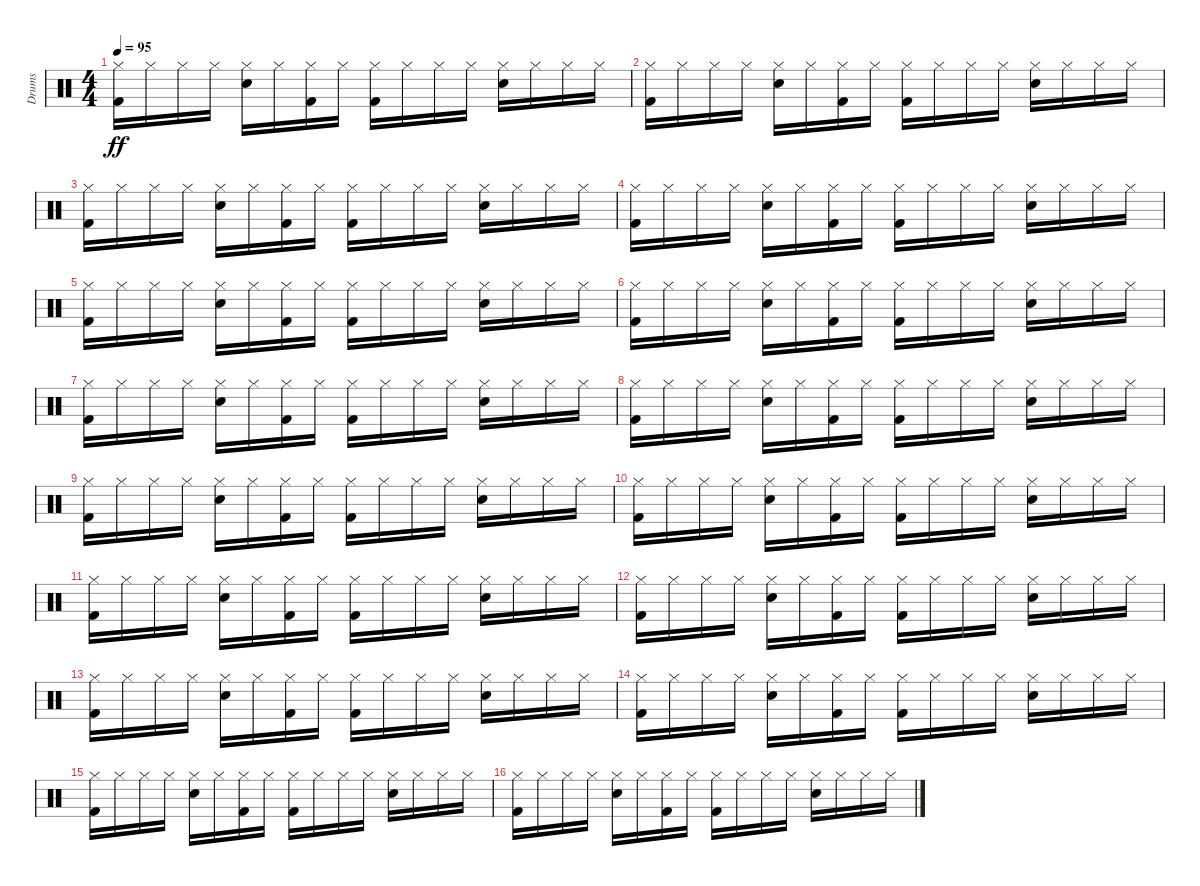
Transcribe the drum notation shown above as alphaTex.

\track ("Drums" "Drums") {instrument percussion}
\staff {score}
\articulation defaults
\ts (4 4)
\tempo 95
\clef neutral
\ks c
("Kick (hit) 2" "Hi-Hat (closed)").16{dy ff} "Hi-Hat (closed)".16 "Hi-Hat (closed)".16 "Hi-Hat (closed)".16 ("Snare (hit) 2" "Hi-Hat (closed)").16 "Hi-Hat (closed)".16 ("Kick (hit) 2" "Hi-Hat (closed)").16 "Hi-Hat (closed)".16 ("Kick (hit) 2" "Hi-Hat (closed)").16 "Hi-Hat (closed)".16 "Hi-Hat (closed)".16 "Hi-Hat (closed)".16 ("Snare (hit) 2" "Hi-Hat (closed)").16 "Hi-Hat (closed)".16 "Hi-Hat (closed)".16 "Hi-Hat (closed)".16 |
("Kick (hit) 2" "Hi-Hat (closed)").16 "Hi-Hat (closed)".16 "Hi-Hat (closed)".16 "Hi-Hat (closed)".16 ("Snare (hit) 2" "Hi-Hat (closed)").16 "Hi-Hat (closed)".16 ("Kick (hit) 2" "Hi-Hat (closed)").16 "Hi-Hat (closed)".16 ("Kick (hit) 2" "Hi-Hat (closed)").16 "Hi-Hat (closed)".16 "Hi-Hat (closed)".16 "Hi-Hat (closed)".16 ("Snare (hit) 2" "Hi-Hat (closed)").16 "Hi-Hat (closed)".16 "Hi-Hat (closed)".16 "Hi-Hat (closed)".16 |
("Kick (hit) 2" "Hi-Hat (closed)").16 "Hi-Hat (closed)".16 "Hi-Hat (closed)".16 "Hi-Hat (closed)".16 ("Snare (hit) 2" "Hi-Hat (closed)").16 "Hi-Hat (closed)".16 ("Kick (hit) 2" "Hi-Hat (closed)").16 "Hi-Hat (closed)".16 ("Kick (hit) 2" "Hi-Hat (closed)").16 "Hi-Hat (closed)".16 "Hi-Hat (closed)".16 "Hi-Hat (closed)".16 ("Snare (hit) 2" "Hi-Hat (closed)").16 "Hi-Hat (closed)".16 "Hi-Hat (closed)".16 "Hi-Hat (closed)".16 |
("Kick (hit) 2" "Hi-Hat (closed)").16 "Hi-Hat (closed)".16 "Hi-Hat (closed)".16 "Hi-Hat (closed)".16 ("Snare (hit) 2" "Hi-Hat (closed)").16 "Hi-Hat (closed)".16 ("Kick (hit) 2" "Hi-Hat (closed)").16 "Hi-Hat (closed)".16 ("Kick (hit) 2" "Hi-Hat (closed)").16 "Hi-Hat (closed)".16 "Hi-Hat (closed)".16 "Hi-Hat (closed)".16 ("Snare (hit) 2" "Hi-Hat (closed)").16 "Hi-Hat (closed)".16 "Hi-Hat (closed)".16 "Hi-Hat (closed)".16 |
("Kick (hit) 2" "Hi-Hat (closed)").16 "Hi-Hat (closed)".16 "Hi-Hat (closed)".16 "Hi-Hat (closed)".16 ("Snare (hit) 2" "Hi-Hat (closed)").16 "Hi-Hat (closed)".16 ("Kick (hit) 2" "Hi-Hat (closed)").16 "Hi-Hat (closed)".16 ("Kick (hit) 2" "Hi-Hat (closed)").16 "Hi-Hat (closed)".16 "Hi-Hat (closed)".16 "Hi-Hat (closed)".16 ("Snare (hit) 2" "Hi-Hat (closed)").16 "Hi-Hat (closed)".16 "Hi-Hat (closed)".16 "Hi-Hat (closed)".16 |
("Kick (hit) 2" "Hi-Hat (closed)").16 "Hi-Hat (closed)".16 "Hi-Hat (closed)".16 "Hi-Hat (closed)".16 ("Snare (hit) 2" "Hi-Hat (closed)").16 "Hi-Hat (closed)".16 ("Kick (hit) 2" "Hi-Hat (closed)").16 "Hi-Hat (closed)".16 ("Kick (hit) 2" "Hi-Hat (closed)").16 "Hi-Hat (closed)".16 "Hi-Hat (closed)".16 "Hi-Hat (closed)".16 ("Snare (hit) 2" "Hi-Hat (closed)").16 "Hi-Hat (closed)".16 "Hi-Hat (closed)".16 "Hi-Hat (closed)".16 |
("Kick (hit) 2" "Hi-Hat (closed)").16 "Hi-Hat (closed)".16 "Hi-Hat (closed)".16 "Hi-Hat (closed)".16 ("Snare (hit) 2" "Hi-Hat (closed)").16 "Hi-Hat (closed)".16 ("Kick (hit) 2" "Hi-Hat (closed)").16 "Hi-Hat (closed)".16 ("Kick (hit) 2" "Hi-Hat (closed)").16 "Hi-Hat (closed)".16 "Hi-Hat (closed)".16 "Hi-Hat (closed)".16 ("Snare (hit) 2" "Hi-Hat (closed)").16 "Hi-Hat (closed)".16 "Hi-Hat (closed)".16 "Hi-Hat (closed)".16 |
("Kick (hit) 2" "Hi-Hat (closed)").16 "Hi-Hat (closed)".16 "Hi-Hat (closed)".16 "Hi-Hat (closed)".16 ("Snare (hit) 2" "Hi-Hat (closed)").16 "Hi-Hat (closed)".16 ("Kick (hit) 2" "Hi-Hat (closed)").16 "Hi-Hat (closed)".16 ("Kick (hit) 2" "Hi-Hat (closed)").16 "Hi-Hat (closed)".16 "Hi-Hat (closed)".16 "Hi-Hat (closed)".16 ("Snare (hit) 2" "Hi-Hat (closed)").16 "Hi-Hat (closed)".16 "Hi-Hat (closed)".16 "Hi-Hat (closed)".16 |
("Kick (hit) 2" "Hi-Hat (closed)").16 "Hi-Hat (closed)".16 "Hi-Hat (closed)".16 "Hi-Hat (closed)".16 ("Snare (hit) 2" "Hi-Hat (closed)").16 "Hi-Hat (closed)".16 ("Kick (hit) 2" "Hi-Hat (closed)").16 "Hi-Hat (closed)".16 ("Kick (hit) 2" "Hi-Hat (closed)").16 "Hi-Hat (closed)".16 "Hi-Hat (closed)".16 "Hi-Hat (closed)".16 ("Snare (hit) 2" "Hi-Hat (closed)").16 "Hi-Hat (closed)".16 "Hi-Hat (closed)".16 "Hi-Hat (closed)".16 |
("Kick (hit) 2" "Hi-Hat (closed)").16 "Hi-Hat (closed)".16 "Hi-Hat (closed)".16 "Hi-Hat (closed)".16 ("Snare (hit) 2" "Hi-Hat (closed)").16 "Hi-Hat (closed)".16 ("Kick (hit) 2" "Hi-Hat (closed)").16 "Hi-Hat (closed)".16 ("Kick (hit) 2" "Hi-Hat (closed)").16 "Hi-Hat (closed)".16 "Hi-Hat (closed)".16 "Hi-Hat (closed)".16 ("Snare (hit) 2" "Hi-Hat (closed)").16 "Hi-Hat (closed)".16 "Hi-Hat (closed)".16 "Hi-Hat (closed)".16 |
("Kick (hit) 2" "Hi-Hat (closed)").16 "Hi-Hat (closed)".16 "Hi-Hat (closed)".16 "Hi-Hat (closed)".16 ("Snare (hit) 2" "Hi-Hat (closed)").16 "Hi-Hat (closed)".16 ("Kick (hit) 2" "Hi-Hat (closed)").16 "Hi-Hat (closed)".16 ("Kick (hit) 2" "Hi-Hat (closed)").16 "Hi-Hat (closed)".16 "Hi-Hat (closed)".16 "Hi-Hat (closed)".16 ("Snare (hit) 2" "Hi-Hat (closed)").16 "Hi-Hat (closed)".16 "Hi-Hat (closed)".16 "Hi-Hat (closed)".16 |
("Kick (hit) 2" "Hi-Hat (closed)").16 "Hi-Hat (closed)".16 "Hi-Hat (closed)".16 "Hi-Hat (closed)".16 ("Snare (hit) 2" "Hi-Hat (closed)").16 "Hi-Hat (closed)".16 ("Kick (hit) 2" "Hi-Hat (closed)").16 "Hi-Hat (closed)".16 ("Kick (hit) 2" "Hi-Hat (closed)").16 "Hi-Hat (closed)".16 "Hi-Hat (closed)".16 "Hi-Hat (closed)".16 ("Snare (hit) 2" "Hi-Hat (closed)").16 "Hi-Hat (closed)".16 "Hi-Hat (closed)".16 "Hi-Hat (closed)".16 |
("Kick (hit) 2" "Hi-Hat (closed)").16 "Hi-Hat (closed)".16 "Hi-Hat (closed)".16 "Hi-Hat (closed)".16 ("Snare (hit) 2" "Hi-Hat (closed)").16 "Hi-Hat (closed)".16 ("Kick (hit) 2" "Hi-Hat (closed)").16 "Hi-Hat (closed)".16 ("Kick (hit) 2" "Hi-Hat (closed)").16 "Hi-Hat (closed)".16 "Hi-Hat (closed)".16 "Hi-Hat (closed)".16 ("Snare (hit) 2" "Hi-Hat (closed)").16 "Hi-Hat (closed)".16 "Hi-Hat (closed)".16 "Hi-Hat (closed)".16 |
("Kick (hit) 2" "Hi-Hat (closed)").16 "Hi-Hat (closed)".16 "Hi-Hat (closed)".16 "Hi-Hat (closed)".16 ("Snare (hit) 2" "Hi-Hat (closed)").16 "Hi-Hat (closed)".16 ("Kick (hit) 2" "Hi-Hat (closed)").16 "Hi-Hat (closed)".16 ("Kick (hit) 2" "Hi-Hat (closed)").16 "Hi-Hat (closed)".16 "Hi-Hat (closed)".16 "Hi-Hat (closed)".16 ("Snare (hit) 2" "Hi-Hat (closed)").16 "Hi-Hat (closed)".16 "Hi-Hat (closed)".16 "Hi-Hat (closed)".16 |
("Kick (hit) 2" "Hi-Hat (closed)").16 "Hi-Hat (closed)".16 "Hi-Hat (closed)".16 "Hi-Hat (closed)".16 ("Snare (hit) 2" "Hi-Hat (closed)").16 "Hi-Hat (closed)".16 ("Kick (hit) 2" "Hi-Hat (closed)").16 "Hi-Hat (closed)".16 ("Kick (hit) 2" "Hi-Hat (closed)").16 "Hi-Hat (closed)".16 "Hi-Hat (closed)".16 "Hi-Hat (closed)".16 ("Snare (hit) 2" "Hi-Hat (closed)").16 "Hi-Hat (closed)".16 "Hi-Hat (closed)".16 "Hi-Hat (closed)".16 |
("Kick (hit) 2" "Hi-Hat (closed)").16 "Hi-Hat (closed)".16 "Hi-Hat (closed)".16 "Hi-Hat (closed)".16 ("Snare (hit) 2" "Hi-Hat (closed)").16 "Hi-Hat (closed)".16 ("Kick (hit) 2" "Hi-Hat (closed)").16 "Hi-Hat (closed)".16 ("Kick (hit) 2" "Hi-Hat (closed)").16 "Hi-Hat (closed)".16 "Hi-Hat (closed)".16 "Hi-Hat (closed)".16 ("Snare (hit) 2" "Hi-Hat (closed)").16 "Hi-Hat (closed)".16 "Hi-Hat (closed)".16 "Hi-Hat (closed)".16
